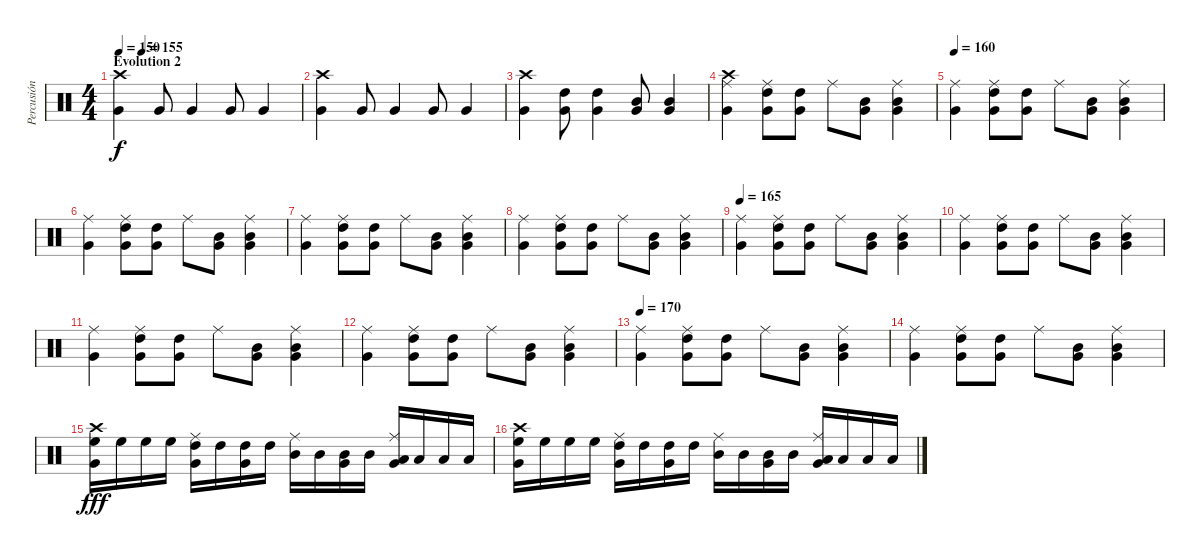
\track ("Percusión" "Percusión") {instrument percussion}
\staff {score}
\articulation defaults
\ts (4 4)
\section ("" "Evolution 2")
\tempo 150
\tempo (155 0.125)
\clef neutral
\ks c
("Crash high (hit)" "Very Low Tom (hit)").4{dy f} "Very Low Tom (hit)".8 "Very Low Tom (hit)".4 "Very Low Tom (hit)".8 "Very Low Tom (hit)".4 |
("Crash high (hit)" "Very Low Tom (hit)").4 "Very Low Tom (hit)".8 "Very Low Tom (hit)".4 "Very Low Tom (hit)".8 "Very Low Tom (hit)".4 |
("Crash high (hit)" "Very Low Tom (hit)").4 ("High Tom (hit)" "Very Low Tom (hit)").8 ("High Tom (hit)" "Very Low Tom (hit)").4 ("Mid Tom (hit)" "Very Low Tom (hit)").8 ("Mid Tom (hit)" "Very Low Tom (hit)").4 |
("Crash high (hit)" "Ride (middle)" "Very Low Tom (hit)").4 ("Ride (middle)" "High Tom (hit)" "Very Low Tom (hit)").8 ("High Tom (hit)" "Very Low Tom (hit)").8 "Ride (middle)".8 ("Mid Tom (hit)" "Very Low Tom (hit)").8 ("Ride (middle)" "Mid Tom (hit)" "Very Low Tom (hit)").4 |
\tempo 160
("Ride (middle)" "Very Low Tom (hit)").4 ("Ride (middle)" "High Tom (hit)" "Very Low Tom (hit)").8 ("High Tom (hit)" "Very Low Tom (hit)").8 "Ride (middle)".8 ("Mid Tom (hit)" "Very Low Tom (hit)").8 ("Ride (middle)" "Mid Tom (hit)" "Very Low Tom (hit)").4 |
("Ride (middle)" "Very Low Tom (hit)").4 ("Ride (middle)" "High Tom (hit)" "Very Low Tom (hit)").8 ("High Tom (hit)" "Very Low Tom (hit)").8 "Ride (middle)".8 ("Mid Tom (hit)" "Very Low Tom (hit)").8 ("Ride (middle)" "Mid Tom (hit)" "Very Low Tom (hit)").4 |
("Ride (middle)" "Very Low Tom (hit)").4 ("Ride (middle)" "High Tom (hit)" "Very Low Tom (hit)").8 ("High Tom (hit)" "Very Low Tom (hit)").8 "Ride (middle)".8 ("Mid Tom (hit)" "Very Low Tom (hit)").8 ("Ride (middle)" "Mid Tom (hit)" "Very Low Tom (hit)").4 |
("Ride (middle)" "Very Low Tom (hit)").4 ("Ride (middle)" "High Tom (hit)" "Very Low Tom (hit)").8 ("High Tom (hit)" "Very Low Tom (hit)").8 "Ride (middle)".8 ("Mid Tom (hit)" "Very Low Tom (hit)").8 ("Ride (middle)" "Mid Tom (hit)" "Very Low Tom (hit)").4 |
\tempo 165
("Ride (middle)" "Very Low Tom (hit)").4 ("Ride (middle)" "High Tom (hit)" "Very Low Tom (hit)").8 ("High Tom (hit)" "Very Low Tom (hit)").8 "Ride (middle)".8 ("Mid Tom (hit)" "Very Low Tom (hit)").8 ("Ride (middle)" "Mid Tom (hit)" "Very Low Tom (hit)").4 |
("Ride (middle)" "Very Low Tom (hit)").4 ("Ride (middle)" "High Tom (hit)" "Very Low Tom (hit)").8 ("High Tom (hit)" "Very Low Tom (hit)").8 "Ride (middle)".8 ("Mid Tom (hit)" "Very Low Tom (hit)").8 ("Ride (middle)" "Mid Tom (hit)" "Very Low Tom (hit)").4 |
("Ride (middle)" "Very Low Tom (hit)").4 ("Ride (middle)" "High Tom (hit)" "Very Low Tom (hit)").8 ("High Tom (hit)" "Very Low Tom (hit)").8 "Ride (middle)".8 ("Mid Tom (hit)" "Very Low Tom (hit)").8 ("Ride (middle)" "Mid Tom (hit)" "Very Low Tom (hit)").4 |
("Ride (middle)" "Very Low Tom (hit)").4 ("Ride (middle)" "High Tom (hit)" "Very Low Tom (hit)").8 ("High Tom (hit)" "Very Low Tom (hit)").8 "Ride (middle)".8 ("Mid Tom (hit)" "Very Low Tom (hit)").8 ("Ride (middle)" "Mid Tom (hit)" "Very Low Tom (hit)").4 |
\tempo 170
("Ride (middle)" "Very Low Tom (hit)").4 ("Ride (middle)" "High Tom (hit)" "Very Low Tom (hit)").8 ("High Tom (hit)" "Very Low Tom (hit)").8 "Ride (middle)".8 ("Mid Tom (hit)" "Very Low Tom (hit)").8 ("Ride (middle)" "Mid Tom (hit)" "Very Low Tom (hit)").4 |
("Ride (middle)" "Very Low Tom (hit)").4 ("Ride (middle)" "High Tom (hit)" "Very Low Tom (hit)").8 ("High Tom (hit)" "Very Low Tom (hit)").8 "Ride (middle)".8 ("Mid Tom (hit)" "Very Low Tom (hit)").8 ("Ride (middle)" "Mid Tom (hit)" "Very Low Tom (hit)").4 |
("Crash high (hit)" "High Floor Tom (hit)" "Very Low Tom (hit)").16{dy fff} "High Floor Tom (hit)".16 "High Floor Tom (hit)".16 "High Floor Tom (hit)".16 ("Ride (middle)" "High Tom (hit)" "Very Low Tom (hit)").16 "High Tom (hit)".16 ("High Tom (hit)" "Very Low Tom (hit)").16 "High Tom (hit)".16 ("Ride (middle)" "Mid Tom (hit)").16 "Mid Tom (hit)".16 ("Mid Tom (hit)" "Very Low Tom (hit)").16 "Mid Tom (hit)".16 ("Ride (middle)" "Low Tom (hit)" "Very Low Tom (hit)").16 "Low Tom (hit)".16 "Low Tom (hit)".16 "Low Tom (hit)".16 |
("Crash high (hit)" "High Floor Tom (hit)" "Very Low Tom (hit)").16 "High Floor Tom (hit)".16 "High Floor Tom (hit)".16 "High Floor Tom (hit)".16 ("Ride (middle)" "High Tom (hit)" "Very Low Tom (hit)").16 "High Tom (hit)".16 ("High Tom (hit)" "Very Low Tom (hit)").16 "High Tom (hit)".16 ("Ride (middle)" "Mid Tom (hit)").16 "Mid Tom (hit)".16 ("Mid Tom (hit)" "Very Low Tom (hit)").16 "Mid Tom (hit)".16 ("Ride (middle)" "Low Tom (hit)" "Very Low Tom (hit)").16 "Low Tom (hit)".16 "Low Tom (hit)".16 "Low Tom (hit)".16
